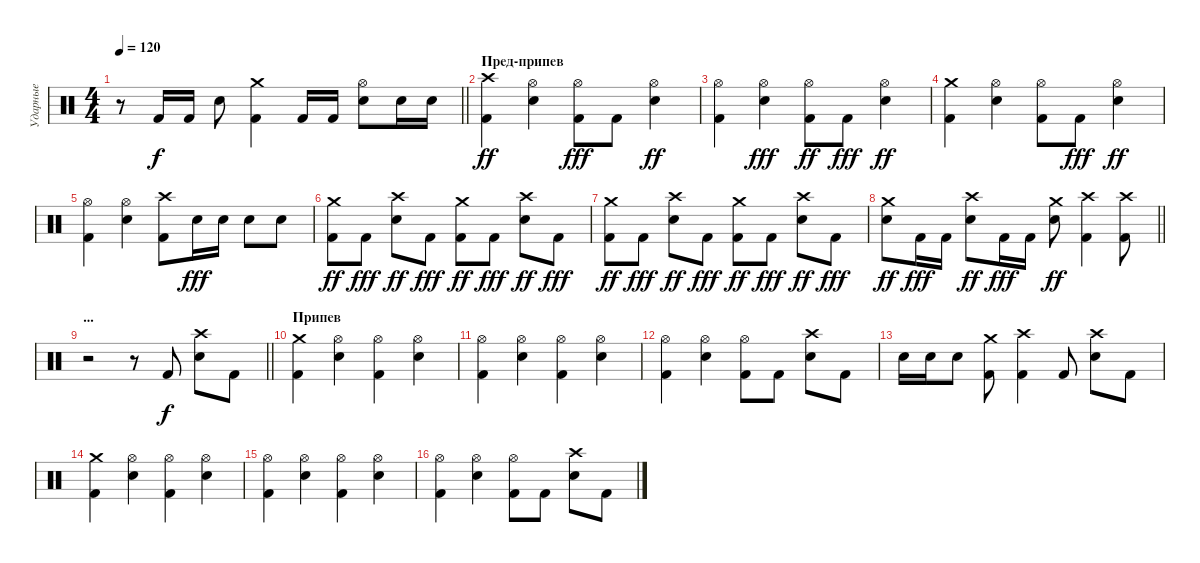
\track ("Ударные" "Ударные") {instrument percussion}
\staff {score}
\articulation defaults
\ts (4 4)
\tempo 120
\clef neutral
\barLineRight lightlight
\ks c
r.8{dy f} "Kick (hit) 2".16 "Kick (hit) 2".16 "Snare (hit) 2".8 ("Kick (hit) 2" "Crash medium (hit)").4 "Kick (hit) 2".16 "Kick (hit) 2".16 ("Snare (hit) 2" "Hi-Hat (open)").8 "Snare (hit) 2".16 "Snare (hit) 2".16 |
\section ("" "Пред-припев")
("Kick (hit) 2" "Crash high (hit)").4{dy ff} ("Snare (hit) 2" "Hi-Hat (open)").4 ("Kick (hit) 2" "Hi-Hat (open)").8{dy fff} "Kick (hit) 2".8 ("Snare (hit) 2" "Hi-Hat (open)").4{dy ff} |
("Kick (hit) 2" "Hi-Hat (open)").4 ("Snare (hit) 2" "Hi-Hat (open)").4{dy fff} ("Kick (hit) 2" "Hi-Hat (open)").8{dy ff} "Kick (hit) 2".8{dy fff} ("Snare (hit) 2" "Hi-Hat (open)").4{dy ff} |
("Kick (hit) 2" "Crash medium (hit)").4 ("Snare (hit) 2" "Hi-Hat (open)").4 ("Kick (hit) 2" "Hi-Hat (open)").8 "Kick (hit) 2".8{dy fff} ("Snare (hit) 2" "Hi-Hat (open)").4{dy ff} |
("Kick (hit) 2" "Hi-Hat (open)").4 ("Snare (hit) 2" "Hi-Hat (open)").4 ("Kick (hit) 2" "Crash high (hit)").8 "Snare (hit) 2".16{dy fff} "Snare (hit) 2".16 "Snare (hit) 2".8 "Snare (hit) 2".8 |
("Kick (hit) 2" "Crash medium (hit)").8{dy ff} "Kick (hit) 2".8{dy fff} ("Snare (hit) 2" "Crash high (hit)").8{dy ff} "Kick (hit) 2".8{dy fff} ("Kick (hit) 2" "Crash medium (hit)").8{dy ff} "Kick (hit) 2".8{dy fff} ("Snare (hit) 2" "Crash high (hit)").8{dy ff} "Kick (hit) 2".8{dy fff} |
("Kick (hit) 2" "Crash medium (hit)").8{dy ff} "Kick (hit) 2".8{dy fff} ("Snare (hit) 2" "Crash high (hit)").8{dy ff} "Kick (hit) 2".8{dy fff} ("Kick (hit) 2" "Crash medium (hit)").8{dy ff} "Kick (hit) 2".8{dy fff} ("Snare (hit) 2" "Crash high (hit)").8{dy ff} "Kick (hit) 2".8{dy fff} |
\barLineRight lightlight
("Snare (hit) 2" "Crash medium (hit)").8{dy ff} "Kick (hit) 2".16{dy fff} "Kick (hit) 2".16 ("Snare (hit) 2" "Crash high (hit)").8{dy ff} "Kick (hit) 2".16{dy fff} "Kick (hit) 2".16 ("Snare (hit) 2" "Crash medium (hit)").8{dy ff} ("Kick (hit) 2" "Crash high (hit)").4 ("Kick (hit) 2" "Crash high (hit)").8 |
\section ("" "...")
\barLineRight lightlight
r.2 r.8 "Kick (hit) 2".8{dy f} ("Snare (hit) 2" "Crash high (hit)").8 "Kick (hit) 2".8 |
\section ("" "Припев")
("Kick (hit) 2" "Crash medium (hit)").4 ("Snare (hit) 2" "Hi-Hat (open)").4 ("Kick (hit) 2" "Hi-Hat (open)").4 ("Snare (hit) 2" "Hi-Hat (open)").4 |
("Kick (hit) 2" "Hi-Hat (open)").4 ("Snare (hit) 2" "Hi-Hat (open)").4 ("Kick (hit) 2" "Hi-Hat (open)").4 ("Snare (hit) 2" "Hi-Hat (open)").4 |
("Kick (hit) 2" "Hi-Hat (open)").4 ("Snare (hit) 2" "Hi-Hat (open)").4 ("Kick (hit) 2" "Hi-Hat (open)").8 "Kick (hit) 2".8 ("Snare (hit) 2" "Crash high (hit)").8 "Kick (hit) 2".8 |
"Snare (hit) 2".16 "Snare (hit) 2".16 "Snare (hit) 2".8 ("Kick (hit) 2" "Crash medium (hit)").8 ("Kick (hit) 2" "Crash high (hit)").4 "Kick (hit) 2".8 ("Snare (hit) 2" "Crash high (hit)").8 "Kick (hit) 2".8 |
("Kick (hit) 2" "Crash medium (hit)").4 ("Snare (hit) 2" "Hi-Hat (open)").4 ("Kick (hit) 2" "Hi-Hat (open)").4 ("Snare (hit) 2" "Hi-Hat (open)").4 |
("Kick (hit) 2" "Hi-Hat (open)").4 ("Snare (hit) 2" "Hi-Hat (open)").4 ("Kick (hit) 2" "Hi-Hat (open)").4 ("Snare (hit) 2" "Hi-Hat (open)").4 |
("Kick (hit) 2" "Hi-Hat (open)").4 ("Snare (hit) 2" "Hi-Hat (open)").4 ("Kick (hit) 2" "Hi-Hat (open)").8 "Kick (hit) 2".8 ("Snare (hit) 2" "Crash high (hit)").8 "Kick (hit) 2".8
